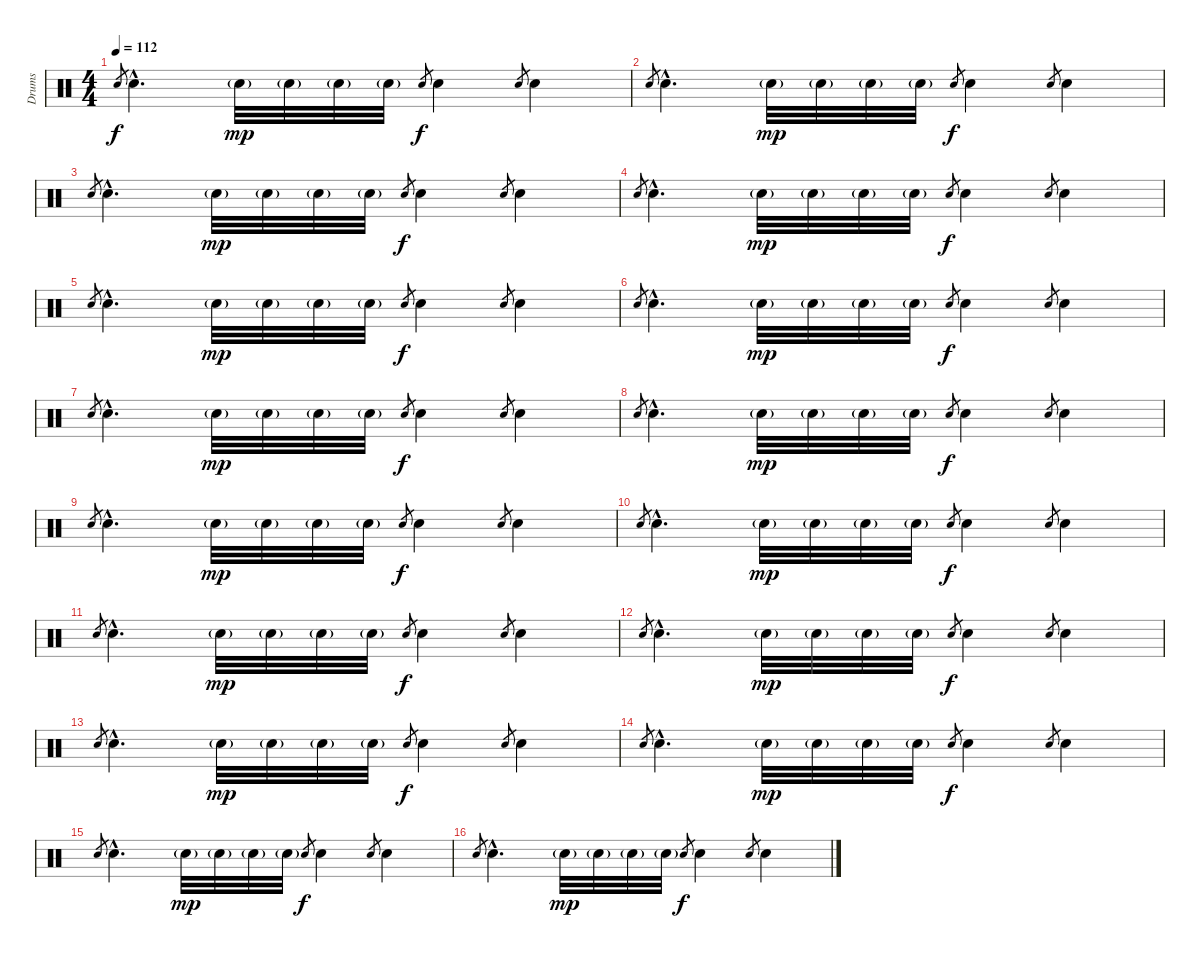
\track ("Drums" "Drums") {instrument percussion}
\staff {score}
\articulation defaults
\ts (4 4)
\tempo 112
\clef neutral
\ks c "Snare (hit) 2".8{gr dy f} "Snare (hit) 2"{hac}.4{d} "Snare (hit) 2"{g}.32{dy mp} "Snare (hit) 2"{g}.32 "Snare (hit) 2"{g}.32 "Snare (hit) 2"{g}.32 "Snare (hit) 2".8{gr dy f} "Snare (hit) 2".4 "Snare (hit) 2".8{gr} "Snare (hit) 2".4
|
"Snare (hit) 2".8{gr} "Snare (hit) 2"{hac}.4{d} "Snare (hit) 2"{g}.32{dy mp} "Snare (hit) 2"{g}.32 "Snare (hit) 2"{g}.32 "Snare (hit) 2"{g}.32 "Snare (hit) 2".8{gr dy f} "Snare (hit) 2".4 "Snare (hit) 2".8{gr} "Snare (hit) 2".4 |
"Snare (hit) 2".8{gr} "Snare (hit) 2"{hac}.4{d} "Snare (hit) 2"{g}.32{dy mp} "Snare (hit) 2"{g}.32 "Snare (hit) 2"{g}.32 "Snare (hit) 2"{g}.32 "Snare (hit) 2".8{gr dy f} "Snare (hit) 2".4 "Snare (hit) 2".8{gr} "Snare (hit) 2".4 |
"Snare (hit) 2".8{gr} "Snare (hit) 2"{hac}.4{d} "Snare (hit) 2"{g}.32{dy mp} "Snare (hit) 2"{g}.32 "Snare (hit) 2"{g}.32 "Snare (hit) 2"{g}.32 "Snare (hit) 2".8{gr dy f} "Snare (hit) 2".4 "Snare (hit) 2".8{gr} "Snare (hit) 2".4 |
"Snare (hit) 2".8{gr} "Snare (hit) 2"{hac}.4{d} "Snare (hit) 2"{g}.32{dy mp} "Snare (hit) 2"{g}.32 "Snare (hit) 2"{g}.32 "Snare (hit) 2"{g}.32 "Snare (hit) 2".8{gr dy f} "Snare (hit) 2".4 "Snare (hit) 2".8{gr} "Snare (hit) 2".4 |
"Snare (hit) 2".8{gr} "Snare (hit) 2"{hac}.4{d} "Snare (hit) 2"{g}.32{dy mp} "Snare (hit) 2"{g}.32 "Snare (hit) 2"{g}.32 "Snare (hit) 2"{g}.32 "Snare (hit) 2".8{gr dy f} "Snare (hit) 2".4 "Snare (hit) 2".8{gr} "Snare (hit) 2".4 |
"Snare (hit) 2".8{gr} "Snare (hit) 2"{hac}.4{d} "Snare (hit) 2"{g}.32{dy mp} "Snare (hit) 2"{g}.32 "Snare (hit) 2"{g}.32 "Snare (hit) 2"{g}.32 "Snare (hit) 2".8{gr dy f} "Snare (hit) 2".4 "Snare (hit) 2".8{gr} "Snare (hit) 2".4 |
"Snare (hit) 2".8{gr} "Snare (hit) 2"{hac}.4{d} "Snare (hit) 2"{g}.32{dy mp} "Snare (hit) 2"{g}.32 "Snare (hit) 2"{g}.32 "Snare (hit) 2"{g}.32 "Snare (hit) 2".8{gr dy f} "Snare (hit) 2".4 "Snare (hit) 2".8{gr} "Snare (hit) 2".4 |
"Snare (hit) 2".8{gr} "Snare (hit) 2"{hac}.4{d} "Snare (hit) 2"{g}.32{dy mp} "Snare (hit) 2"{g}.32 "Snare (hit) 2"{g}.32 "Snare (hit) 2"{g}.32 "Snare (hit) 2".8{gr dy f} "Snare (hit) 2".4 "Snare (hit) 2".8{gr} "Snare (hit) 2".4 |
"Snare (hit) 2".8{gr} "Snare (hit) 2"{hac}.4{d} "Snare (hit) 2"{g}.32{dy mp} "Snare (hit) 2"{g}.32 "Snare (hit) 2"{g}.32 "Snare (hit) 2"{g}.32 "Snare (hit) 2".8{gr dy f} "Snare (hit) 2".4 "Snare (hit) 2".8{gr} "Snare (hit) 2".4 |
"Snare (hit) 2".8{gr} "Snare (hit) 2"{hac}.4{d} "Snare (hit) 2"{g}.32{dy mp} "Snare (hit) 2"{g}.32 "Snare (hit) 2"{g}.32 "Snare (hit) 2"{g}.32 "Snare (hit) 2".8{gr dy f} "Snare (hit) 2".4 "Snare (hit) 2".8{gr} "Snare (hit) 2".4 |
"Snare (hit) 2".8{gr} "Snare (hit) 2"{hac}.4{d} "Snare (hit) 2"{g}.32{dy mp} "Snare (hit) 2"{g}.32 "Snare (hit) 2"{g}.32 "Snare (hit) 2"{g}.32 "Snare (hit) 2".8{gr dy f} "Snare (hit) 2".4 "Snare (hit) 2".8{gr} "Snare (hit) 2".4 |
"Snare (hit) 2".8{gr} "Snare (hit) 2"{hac}.4{d} "Snare (hit) 2"{g}.32{dy mp} "Snare (hit) 2"{g}.32 "Snare (hit) 2"{g}.32 "Snare (hit) 2"{g}.32 "Snare (hit) 2".8{gr dy f} "Snare (hit) 2".4 "Snare (hit) 2".8{gr} "Snare (hit) 2".4 |
"Snare (hit) 2".8{gr} "Snare (hit) 2"{hac}.4{d} "Snare (hit) 2"{g}.32{dy mp} "Snare (hit) 2"{g}.32 "Snare (hit) 2"{g}.32 "Snare (hit) 2"{g}.32 "Snare (hit) 2".8{gr dy f} "Snare (hit) 2".4 "Snare (hit) 2".8{gr} "Snare (hit) 2".4 |
"Snare (hit) 2".8{gr} "Snare (hit) 2"{hac}.4{d} "Snare (hit) 2"{g}.32{dy mp} "Snare (hit) 2"{g}.32 "Snare (hit) 2"{g}.32 "Snare (hit) 2"{g}.32 "Snare (hit) 2".8{gr dy f} "Snare (hit) 2".4 "Snare (hit) 2".8{gr} "Snare (hit) 2".4 |
"Snare (hit) 2".8{gr} "Snare (hit) 2"{hac}.4{d} "Snare (hit) 2"{g}.32{dy mp} "Snare (hit) 2"{g}.32 "Snare (hit) 2"{g}.32 "Snare (hit) 2"{g}.32 "Snare (hit) 2".8{gr dy f} "Snare (hit) 2".4 "Snare (hit) 2".8{gr} "Snare (hit) 2".4
